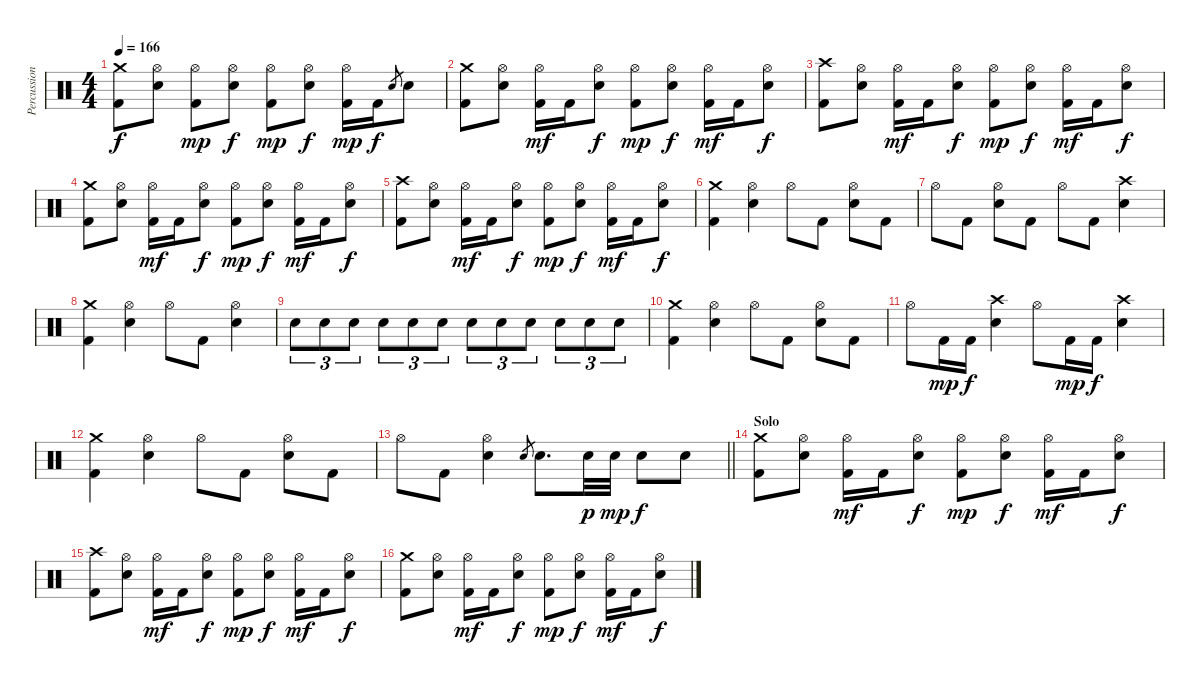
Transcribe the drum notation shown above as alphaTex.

\track ("Percussion" "Percussion") {instrument percussion}
\staff {score}
\articulation defaults
\ts (4 4)
\tempo 166
\clef neutral
\ks c
("Crash medium (hit)" "Kick (hit) 2").8{dy f} ("Hi-Hat (open)" "Electric Snare (hit)").8 ("Hi-Hat (open)" "Kick (hit) 2").8{dy mp} ("Hi-Hat (open)" "Electric Snare (hit)").8{dy f} ("Hi-Hat (open)" "Kick (hit) 2").8{dy mp} ("Hi-Hat (open)" "Electric Snare (hit)").8{dy f} ("Hi-Hat (open)" "Kick (hit) 2").16{dy mp} "Kick (hit) 2".16{dy f} "Electric Snare (hit)".8{gr} "Electric Snare (hit)".8 |
("Crash medium (hit)" "Kick (hit) 2").8 ("Hi-Hat (open)" "Electric Snare (hit)").8 ("Hi-Hat (open)" "Kick (hit) 2").16{dy mf} "Kick (hit) 2".16 ("Hi-Hat (open)" "Electric Snare (hit)").8{dy f} ("Hi-Hat (open)" "Kick (hit) 2").8{dy mp} ("Hi-Hat (open)" "Electric Snare (hit)").8{dy f} ("Hi-Hat (open)" "Kick (hit) 2").16{dy mf} "Kick (hit) 2".16 ("Hi-Hat (open)" "Electric Snare (hit)").8{dy f} |
("Crash high (hit)" "Kick (hit) 2").8 ("Hi-Hat (open)" "Electric Snare (hit)").8 ("Hi-Hat (open)" "Kick (hit) 2").16{dy mf} "Kick (hit) 2".16 ("Hi-Hat (open)" "Electric Snare (hit)").8{dy f} ("Hi-Hat (open)" "Kick (hit) 2").8{dy mp} ("Hi-Hat (open)" "Electric Snare (hit)").8{dy f} ("Hi-Hat (open)" "Kick (hit) 2").16{dy mf} "Kick (hit) 2".16 ("Hi-Hat (open)" "Electric Snare (hit)").8{dy f} |
("Crash medium (hit)" "Kick (hit) 2").8 ("Hi-Hat (open)" "Electric Snare (hit)").8 ("Hi-Hat (open)" "Kick (hit) 2").16{dy mf} "Kick (hit) 2".16 ("Hi-Hat (open)" "Electric Snare (hit)").8{dy f} ("Hi-Hat (open)" "Kick (hit) 2").8{dy mp} ("Hi-Hat (open)" "Electric Snare (hit)").8{dy f} ("Hi-Hat (open)" "Kick (hit) 2").16{dy mf} "Kick (hit) 2".16 ("Hi-Hat (open)" "Electric Snare (hit)").8{dy f} |
("Crash high (hit)" "Kick (hit) 2").8 ("Hi-Hat (open)" "Electric Snare (hit)").8 ("Hi-Hat (open)" "Kick (hit) 2").16{dy mf} "Kick (hit) 2".16 ("Hi-Hat (open)" "Electric Snare (hit)").8{dy f} ("Hi-Hat (open)" "Kick (hit) 2").8{dy mp} ("Hi-Hat (open)" "Electric Snare (hit)").8{dy f} ("Hi-Hat (open)" "Kick (hit) 2").16{dy mf} "Kick (hit) 2".16 ("Hi-Hat (open)" "Electric Snare (hit)").8{dy f} |
("Crash medium (hit)" "Kick (hit) 2").4 ("Hi-Hat (open)" "Electric Snare (hit)").4 "Hi-Hat (open)".8 "Kick (hit) 2".8 ("Hi-Hat (open)" "Electric Snare (hit)").8 "Kick (hit) 2".8 |
"Hi-Hat (open)".8 "Kick (hit) 2".8 ("Hi-Hat (open)" "Electric Snare (hit)").8 "Kick (hit) 2".8 "Hi-Hat (open)".8 "Kick (hit) 2".8 ("Crash high (hit)" "Electric Snare (hit)").4 |
("Crash medium (hit)" "Kick (hit) 2").4 ("Hi-Hat (open)" "Electric Snare (hit)").4 "Hi-Hat (open)".8 "Kick (hit) 2".8 ("Hi-Hat (open)" "Electric Snare (hit)").4 |
"Electric Snare (hit)".8{tu (3 2)} "Electric Snare (hit)".8{tu (3 2)} "Electric Snare (hit)".8{tu (3 2)} "Electric Snare (hit)".8{tu (3 2)} "Electric Snare (hit)".8{tu (3 2)} "Electric Snare (hit)".8{tu (3 2)} "Electric Snare (hit)".8{tu (3 2)} "Electric Snare (hit)".8{tu (3 2)} "Electric Snare (hit)".8{tu (3 2)} "Electric Snare (hit)".8{tu (3 2)} "Electric Snare (hit)".8{tu (3 2)} "Electric Snare (hit)".8{tu (3 2)} |
("Crash medium (hit)" "Kick (hit) 2").4 ("Hi-Hat (open)" "Electric Snare (hit)").4 "Hi-Hat (open)".8 "Kick (hit) 2".8 ("Hi-Hat (open)" "Electric Snare (hit)").8 "Kick (hit) 2".8 |
"Hi-Hat (open)".8 "Kick (hit) 2".16{dy mp} "Kick (hit) 2".16{dy f} ("Crash high (hit)" "Electric Snare (hit)").4 "Hi-Hat (open)".8 "Kick (hit) 2".16{dy mp} "Kick (hit) 2".16{dy f} ("Crash high (hit)" "Electric Snare (hit)").4 |
("Crash medium (hit)" "Kick (hit) 2").4 ("Hi-Hat (open)" "Electric Snare (hit)").4 "Hi-Hat (open)".8 "Kick (hit) 2".8 ("Hi-Hat (open)" "Electric Snare (hit)").8 "Kick (hit) 2".8 |
\barLineRight lightlight "Hi-Hat (open)".8 "Kick (hit) 2".8
("Hi-Hat (open)" "Electric Snare (hit)").4 "Electric Snare (hit)".8{gr} "Electric Snare (hit)".8{d} "Electric Snare (hit)".32{dy p} "Electric Snare (hit)".32{dy mp} "Electric Snare (hit)".8{dy f} "Electric Snare (hit)".8 |
\section ("" "Solo")
("Crash medium (hit)" "Kick (hit) 2").8 ("Hi-Hat (open)" "Electric Snare (hit)").8 ("Hi-Hat (open)" "Kick (hit) 2").16{dy mf} "Kick (hit) 2".16 ("Hi-Hat (open)" "Electric Snare (hit)").8{dy f} ("Hi-Hat (open)" "Kick (hit) 2").8{dy mp} ("Hi-Hat (open)" "Electric Snare (hit)").8{dy f} ("Hi-Hat (open)" "Kick (hit) 2").16{dy mf} "Kick (hit) 2".16 ("Hi-Hat (open)" "Electric Snare (hit)").8{dy f} |
("Crash high (hit)" "Kick (hit) 2").8 ("Hi-Hat (open)" "Electric Snare (hit)").8 ("Hi-Hat (open)" "Kick (hit) 2").16{dy mf} "Kick (hit) 2".16 ("Hi-Hat (open)" "Electric Snare (hit)").8{dy f} ("Hi-Hat (open)" "Kick (hit) 2").8{dy mp} ("Hi-Hat (open)" "Electric Snare (hit)").8{dy f} ("Hi-Hat (open)" "Kick (hit) 2").16{dy mf} "Kick (hit) 2".16 ("Hi-Hat (open)" "Electric Snare (hit)").8{dy f} |
("Crash medium (hit)" "Kick (hit) 2").8 ("Hi-Hat (open)" "Electric Snare (hit)").8 ("Hi-Hat (open)" "Kick (hit) 2").16{dy mf} "Kick (hit) 2".16 ("Hi-Hat (open)" "Electric Snare (hit)").8{dy f} ("Hi-Hat (open)" "Kick (hit) 2").8{dy mp} ("Hi-Hat (open)" "Electric Snare (hit)").8{dy f} ("Hi-Hat (open)" "Kick (hit) 2").16{dy mf} "Kick (hit) 2".16 ("Hi-Hat (open)" "Electric Snare (hit)").8{dy f}
